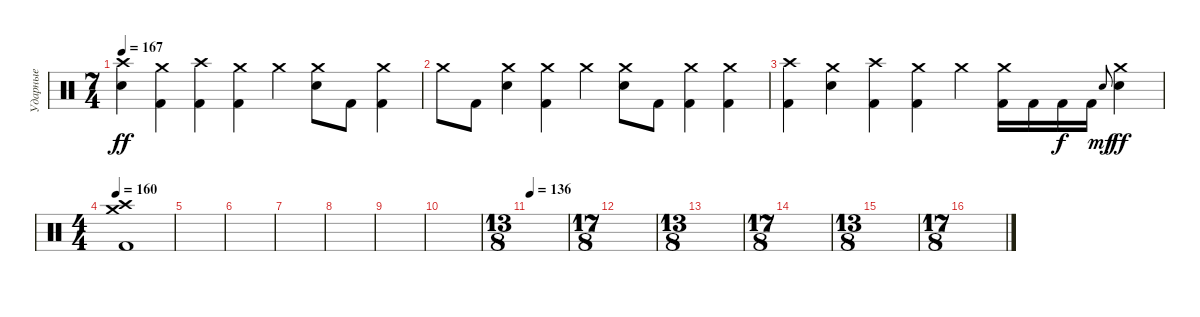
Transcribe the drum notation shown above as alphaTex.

\track ("Ударные" "Ударные") {instrument percussion}
\staff {score}
\articulation defaults
\ts (7 4)
\tempo 167
\clef neutral
\ks c
("Crash high (hit)" "Electric Snare (hit)").4{dy ff} ("Crash medium (hit)" "Kick (hit) 2").4 ("Crash high (hit)" "Kick (hit) 2").4 ("Crash medium (hit)" "Kick (hit) 2").4 "Crash medium (hit)".4 ("Crash medium (hit)" "Electric Snare (hit)").8 "Kick (hit) 2".8 ("Crash medium (hit)" "Kick (hit) 2").4 |
"Crash medium (hit)".8 "Kick (hit) 2".8 ("Crash medium (hit)" "Electric Snare (hit)").4 ("Crash medium (hit)" "Kick (hit) 2").4 "Crash medium (hit)".4 ("Crash medium (hit)" "Electric Snare (hit)").8 "Kick (hit) 2".8 ("Crash medium (hit)" "Kick (hit) 2").4 ("Crash medium (hit)" "Kick (hit) 2").4 |
("Crash high (hit)" "Kick (hit) 2").4 ("Crash medium (hit)" "Electric Snare (hit)").4 ("Crash high (hit)" "Kick (hit) 2").4 ("Crash medium (hit)" "Kick (hit) 2").4 "Crash medium (hit)".4 ("Crash medium (hit)" "Kick (hit) 2").16 "Kick (hit) 2".16 "Kick (hit) 2".16{dy f} "Kick (hit) 2".16 "Electric Snare (hit)".8{gr onbeat dy mf} ("Crash medium (hit)" "Electric Snare (hit)").4{dy ff} |
\ts (4 4)
\tempo 160
("Crash medium (hit)" "Crash high (hit)" "Kick (hit) 2").1 |
|
|
|
|
|
|
\ts (13 8)
\tempo 136
|
\ts (17 8)
|
\ts (13 8)
|
\ts (17 8)
|
\ts (13 8)
|
\ts (17 8)
